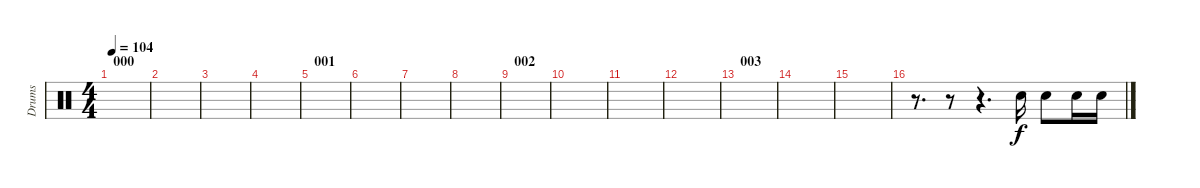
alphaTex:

\track ("Drums" "Drums") {instrument percussion}
\staff {score}
\articulation defaults
\ts (4 4)
\section ("" "000")
\tempo 104
\clef neutral
\ks c
|
|
|
|
\section ("" "001")
|
|
|
|
\section ("" "002")
|
|
|
|
\section ("" "003")
|
|
|
r.8{d} r.8 r.4{d} "Electric Snare (hit)".16 "Electric Snare (hit)".8 "Electric Snare (hit)".16 "Electric Snare (hit)".16
